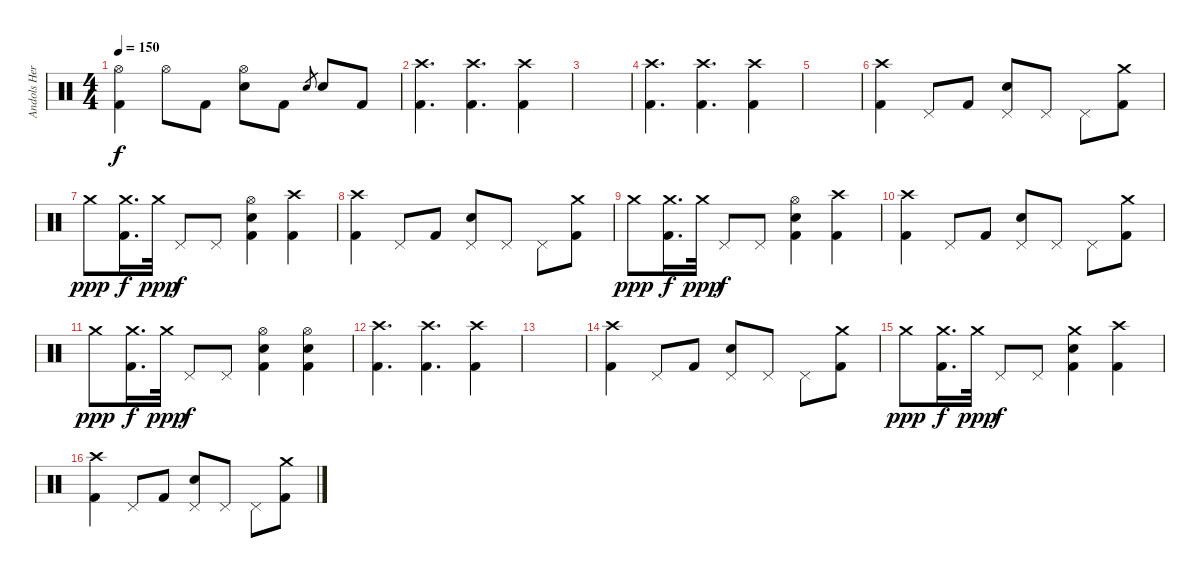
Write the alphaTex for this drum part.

\track ("Andols Herrick" "Andols Her") {instrument percussion}
\staff {score}
\articulation defaults
\ts (4 4)
\tempo 150
\clef neutral
\ks c
("Hi-Hat (open)" "Kick (hit) 2").4{dy f} "Hi-Hat (open)".8 "Kick (hit) 2".8 ("Hi-Hat (open)" "Electric Snare (hit)").8 "Kick (hit) 2".8 "Electric Snare (hit)".8{gr} "Electric Snare (hit)".8 "Kick (hit) 2".8 |
("Crash high (hit)" "Kick (hit) 2").4{d} ("Crash high (hit)" "Kick (hit) 2").4{d} ("Crash high (hit)" "Kick (hit) 2").4 |
|
("Crash high (hit)" "Kick (hit) 2").4{d} ("Crash high (hit)" "Kick (hit) 2").4{d} ("Crash high (hit)" "Kick (hit) 2").4 |
|
("Crash high (hit)" "Kick (hit) 2").4 "Pedal Hi-Hat (hit)".8 "Kick (hit) 2".8 ("Pedal Hi-Hat (hit)" "Electric Snare (hit)").8 "Pedal Hi-Hat (hit)".8 "Pedal Hi-Hat (hit)".8 ("Crash medium (hit)" "Kick (hit) 2").8 |
"Crash medium (hit)".8{dy ppp} ("Crash medium (hit)" "Kick (hit) 2").16{d dy f} "Crash medium (hit)".32{dy ppp} "Pedal Hi-Hat (hit)".8{dy f} "Pedal Hi-Hat (hit)".8 ("Hi-Hat (open)" "Electric Snare (hit)" "Kick (hit) 2").4 ("Crash high (hit)" "Kick (hit) 2").4 |
("Crash high (hit)" "Kick (hit) 2").4 "Pedal Hi-Hat (hit)".8 "Kick (hit) 2".8 ("Pedal Hi-Hat (hit)" "Electric Snare (hit)").8 "Pedal Hi-Hat (hit)".8 "Pedal Hi-Hat (hit)".8 ("Crash medium (hit)" "Kick (hit) 2").8 |
"Crash medium (hit)".8{dy ppp} ("Crash medium (hit)" "Kick (hit) 2").16{d dy f} "Crash medium (hit)".32{dy ppp} "Pedal Hi-Hat (hit)".8{dy f} "Pedal Hi-Hat (hit)".8 ("Hi-Hat (open)" "Electric Snare (hit)" "Kick (hit) 2").4 ("Crash high (hit)" "Kick (hit) 2").4 |
("Crash high (hit)" "Kick (hit) 2").4 "Pedal Hi-Hat (hit)".8 "Kick (hit) 2".8 ("Pedal Hi-Hat (hit)" "Electric Snare (hit)").8 "Pedal Hi-Hat (hit)".8 "Pedal Hi-Hat (hit)".8 ("Crash medium (hit)" "Kick (hit) 2").8 |
"Crash medium (hit)".8{dy ppp} ("Crash medium (hit)" "Kick (hit) 2").16{d dy f} "Crash medium (hit)".32{dy ppp} "Pedal Hi-Hat (hit)".8{dy f} "Pedal Hi-Hat (hit)".8 ("Hi-Hat (open)" "Electric Snare (hit)" "Kick (hit) 2").4 ("Hi-Hat (open)" "Electric Snare (hit)" "Kick (hit) 2").4 |
("Crash high (hit)" "Kick (hit) 2").4{d} ("Crash high (hit)" "Kick (hit) 2").4{d} ("Crash high (hit)" "Kick (hit) 2").4 |
|
("Crash high (hit)" "Kick (hit) 2").4 "Pedal Hi-Hat (hit)".8 "Kick (hit) 2".8 ("Pedal Hi-Hat (hit)" "Electric Snare (hit)").8 "Pedal Hi-Hat (hit)".8 "Pedal Hi-Hat (hit)".8 ("Crash medium (hit)" "Kick (hit) 2").8 |
"Crash medium (hit)".8{dy ppp} ("Crash medium (hit)" "Kick (hit) 2").16{d dy f} "Crash medium (hit)".32{dy ppp} "Pedal Hi-Hat (hit)".8{dy f} "Pedal Hi-Hat (hit)".8 ("Crash medium (hit)" "Electric Snare (hit)" "Kick (hit) 2").4 ("Crash high (hit)" "Kick (hit) 2").4 |
("Crash high (hit)" "Kick (hit) 2").4 "Pedal Hi-Hat (hit)".8 "Kick (hit) 2".8 ("Pedal Hi-Hat (hit)" "Electric Snare (hit)").8 "Pedal Hi-Hat (hit)".8 "Pedal Hi-Hat (hit)".8 ("Crash medium (hit)" "Kick (hit) 2").8
